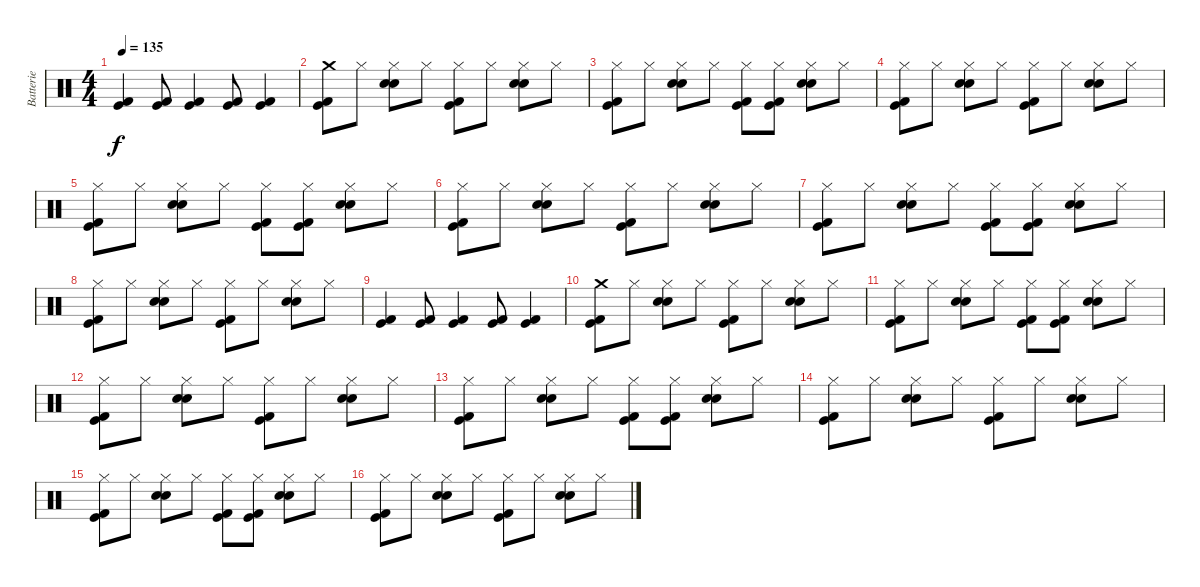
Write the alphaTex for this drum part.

\track ("Batterie" "Batterie") {instrument percussion}
\staff {score}
\articulation defaults
\ts (4 4)
\tempo 135
\clef neutral
\ks c
("Kick (hit)" "Kick (hit) 2").4{dy f} ("Kick (hit)" "Kick (hit) 2").8 ("Kick (hit)" "Kick (hit) 2").4 ("Kick (hit)" "Kick (hit) 2").8 ("Kick (hit)" "Kick (hit) 2").4 |
("Crash medium (hit)" "Kick (hit)" "Kick (hit) 2").8 "Hi-Hat (closed)".8 ("Hi-Hat (closed)" "Electric Snare (hit)" "Snare (hit) 2").8 "Hi-Hat (closed)".8 ("Hi-Hat (closed)" "Kick (hit)" "Kick (hit) 2").8 "Hi-Hat (closed)".8 ("Hi-Hat (closed)" "Snare (hit) 2" "Electric Snare (hit)").8 "Hi-Hat (closed)".8 |
("Hi-Hat (closed)" "Kick (hit)" "Kick (hit) 2").8 "Hi-Hat (closed)".8 ("Hi-Hat (closed)" "Electric Snare (hit)" "Snare (hit) 2").8 "Hi-Hat (closed)".8 ("Hi-Hat (closed)" "Kick (hit)" "Kick (hit) 2").8 ("Hi-Hat (closed)" "Kick (hit)" "Kick (hit) 2").8 ("Hi-Hat (closed)" "Electric Snare (hit)" "Snare (hit) 2").8 "Hi-Hat (closed)".8 |
("Hi-Hat (closed)" "Kick (hit)" "Kick (hit) 2").8 "Hi-Hat (closed)".8 ("Hi-Hat (closed)" "Electric Snare (hit)" "Snare (hit) 2").8 "Hi-Hat (closed)".8 ("Hi-Hat (closed)" "Kick (hit)" "Kick (hit) 2").8 "Hi-Hat (closed)".8 ("Hi-Hat (closed)" "Snare (hit) 2" "Electric Snare (hit)").8 "Hi-Hat (closed)".8 |
("Hi-Hat (closed)" "Kick (hit)" "Kick (hit) 2").8 "Hi-Hat (closed)".8 ("Hi-Hat (closed)" "Electric Snare (hit)" "Snare (hit) 2").8 "Hi-Hat (closed)".8 ("Hi-Hat (closed)" "Kick (hit)" "Kick (hit) 2").8 ("Hi-Hat (closed)" "Kick (hit)" "Kick (hit) 2").8 ("Hi-Hat (closed)" "Electric Snare (hit)" "Snare (hit) 2").8 "Hi-Hat (closed)".8 |
("Hi-Hat (closed)" "Kick (hit)" "Kick (hit) 2").8 "Hi-Hat (closed)".8 ("Hi-Hat (closed)" "Electric Snare (hit)" "Snare (hit) 2").8 "Hi-Hat (closed)".8 ("Hi-Hat (closed)" "Kick (hit)" "Kick (hit) 2").8 "Hi-Hat (closed)".8 ("Hi-Hat (closed)" "Snare (hit) 2" "Electric Snare (hit)").8 "Hi-Hat (closed)".8 |
("Hi-Hat (closed)" "Kick (hit)" "Kick (hit) 2").8 "Hi-Hat (closed)".8 ("Hi-Hat (closed)" "Electric Snare (hit)" "Snare (hit) 2").8 "Hi-Hat (closed)".8 ("Hi-Hat (closed)" "Kick (hit)" "Kick (hit) 2").8 ("Hi-Hat (closed)" "Kick (hit)" "Kick (hit) 2").8 ("Hi-Hat (closed)" "Electric Snare (hit)" "Snare (hit) 2").8 "Hi-Hat (closed)".8 |
("Hi-Hat (closed)" "Kick (hit)" "Kick (hit) 2").8 "Hi-Hat (closed)".8 ("Hi-Hat (closed)" "Electric Snare (hit)" "Snare (hit) 2").8 "Hi-Hat (closed)".8 ("Hi-Hat (closed)" "Kick (hit)" "Kick (hit) 2").8 "Hi-Hat (closed)".8 ("Hi-Hat (closed)" "Snare (hit) 2" "Electric Snare (hit)").8 "Hi-Hat (closed)".8 |
("Kick (hit)" "Kick (hit) 2").4 ("Kick (hit)" "Kick (hit) 2").8 ("Kick (hit)" "Kick (hit) 2").4 ("Kick (hit)" "Kick (hit) 2").8 ("Kick (hit)" "Kick (hit) 2").4 |
("Crash medium (hit)" "Kick (hit)" "Kick (hit) 2").8 "Hi-Hat (closed)".8 ("Hi-Hat (closed)" "Electric Snare (hit)" "Snare (hit) 2").8 "Hi-Hat (closed)".8 ("Hi-Hat (closed)" "Kick (hit)" "Kick (hit) 2").8 "Hi-Hat (closed)".8 ("Hi-Hat (closed)" "Snare (hit) 2" "Electric Snare (hit)").8 "Hi-Hat (closed)".8 |
("Hi-Hat (closed)" "Kick (hit)" "Kick (hit) 2").8 "Hi-Hat (closed)".8 ("Hi-Hat (closed)" "Electric Snare (hit)" "Snare (hit) 2").8 "Hi-Hat (closed)".8 ("Hi-Hat (closed)" "Kick (hit)" "Kick (hit) 2").8 ("Hi-Hat (closed)" "Kick (hit)" "Kick (hit) 2").8 ("Hi-Hat (closed)" "Electric Snare (hit)" "Snare (hit) 2").8 "Hi-Hat (closed)".8 |
("Hi-Hat (closed)" "Kick (hit)" "Kick (hit) 2").8 "Hi-Hat (closed)".8 ("Hi-Hat (closed)" "Electric Snare (hit)" "Snare (hit) 2").8 "Hi-Hat (closed)".8 ("Hi-Hat (closed)" "Kick (hit)" "Kick (hit) 2").8 "Hi-Hat (closed)".8 ("Hi-Hat (closed)" "Snare (hit) 2" "Electric Snare (hit)").8 "Hi-Hat (closed)".8 |
("Hi-Hat (closed)" "Kick (hit)" "Kick (hit) 2").8 "Hi-Hat (closed)".8 ("Hi-Hat (closed)" "Electric Snare (hit)" "Snare (hit) 2").8 "Hi-Hat (closed)".8 ("Hi-Hat (closed)" "Kick (hit)" "Kick (hit) 2").8 ("Hi-Hat (closed)" "Kick (hit)" "Kick (hit) 2").8 ("Hi-Hat (closed)" "Electric Snare (hit)" "Snare (hit) 2").8 "Hi-Hat (closed)".8 |
("Hi-Hat (closed)" "Kick (hit)" "Kick (hit) 2").8 "Hi-Hat (closed)".8 ("Hi-Hat (closed)" "Electric Snare (hit)" "Snare (hit) 2").8 "Hi-Hat (closed)".8 ("Hi-Hat (closed)" "Kick (hit)" "Kick (hit) 2").8 "Hi-Hat (closed)".8 ("Hi-Hat (closed)" "Snare (hit) 2" "Electric Snare (hit)").8 "Hi-Hat (closed)".8 |
("Hi-Hat (closed)" "Kick (hit)" "Kick (hit) 2").8 "Hi-Hat (closed)".8 ("Hi-Hat (closed)" "Electric Snare (hit)" "Snare (hit) 2").8 "Hi-Hat (closed)".8 ("Hi-Hat (closed)" "Kick (hit)" "Kick (hit) 2").8 ("Hi-Hat (closed)" "Kick (hit)" "Kick (hit) 2").8 ("Hi-Hat (closed)" "Electric Snare (hit)" "Snare (hit) 2").8 "Hi-Hat (closed)".8 |
("Hi-Hat (closed)" "Kick (hit)" "Kick (hit) 2").8 "Hi-Hat (closed)".8 ("Hi-Hat (closed)" "Electric Snare (hit)" "Snare (hit) 2").8 "Hi-Hat (closed)".8 ("Hi-Hat (closed)" "Kick (hit)" "Kick (hit) 2").8 "Hi-Hat (closed)".8 ("Hi-Hat (closed)" "Snare (hit) 2" "Electric Snare (hit)").8 "Hi-Hat (closed)".8
